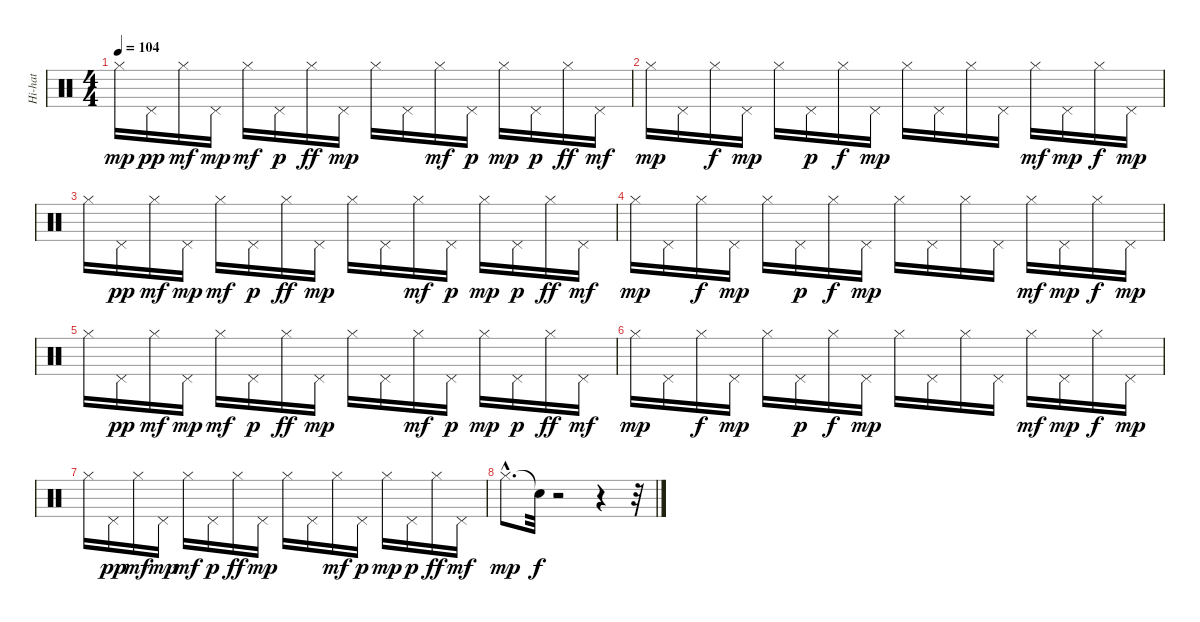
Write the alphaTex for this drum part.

\track ("Hi-hat" "Hi-hat") {instrument percussion}
\staff {score}
\articulation defaults
\ts (4 4)
\tempo 104
\clef neutral
\ks c "Hi-Hat (closed)".16{dy mp} "Pedal Hi-Hat (hit)".16{dy pp} "Hi-Hat (closed)".16{dy mf} "Pedal Hi-Hat (hit)".16{dy mp} "Hi-Hat (closed)".16{dy mf} "Pedal Hi-Hat (hit)".16{dy p} "Hi-Hat (closed)".16{dy ff} "Pedal Hi-Hat (hit)".16{dy mp} "Hi-Hat (closed)".16 "Pedal Hi-Hat (hit)".16 "Hi-Hat (closed)".16{dy mf} "Pedal Hi-Hat (hit)".16{dy p} "Hi-Hat (closed)".16{dy mp} "Pedal Hi-Hat (hit)".16{dy p} "Hi-Hat (closed)".16{dy ff} "Pedal Hi-Hat (hit)".16{dy mf}
|
"Hi-Hat (closed)".16{dy mp} "Pedal Hi-Hat (hit)".16 "Hi-Hat (closed)".16{dy f} "Pedal Hi-Hat (hit)".16{dy mp} "Hi-Hat (closed)".16 "Pedal Hi-Hat (hit)".16{dy p} "Hi-Hat (closed)".16{dy f} "Pedal Hi-Hat (hit)".16{dy mp} "Hi-Hat (closed)".16 "Pedal Hi-Hat (hit)".16 "Hi-Hat (closed)".16 "Pedal Hi-Hat (hit)".16 "Hi-Hat (closed)".16{dy mf} "Pedal Hi-Hat (hit)".16{dy mp} "Hi-Hat (closed)".16{dy f} "Pedal Hi-Hat (hit)".16{dy mp} |
"Hi-Hat (closed)".16 "Pedal Hi-Hat (hit)".16{dy pp} "Hi-Hat (closed)".16{dy mf} "Pedal Hi-Hat (hit)".16{dy mp} "Hi-Hat (closed)".16{dy mf} "Pedal Hi-Hat (hit)".16{dy p} "Hi-Hat (closed)".16{dy ff} "Pedal Hi-Hat (hit)".16{dy mp} "Hi-Hat (closed)".16 "Pedal Hi-Hat (hit)".16 "Hi-Hat (closed)".16{dy mf} "Pedal Hi-Hat (hit)".16{dy p} "Hi-Hat (closed)".16{dy mp} "Pedal Hi-Hat (hit)".16{dy p} "Hi-Hat (closed)".16{dy ff} "Pedal Hi-Hat (hit)".16{dy mf} |
"Hi-Hat (closed)".16{dy mp} "Pedal Hi-Hat (hit)".16 "Hi-Hat (closed)".16{dy f} "Pedal Hi-Hat (hit)".16{dy mp} "Hi-Hat (closed)".16 "Pedal Hi-Hat (hit)".16{dy p} "Hi-Hat (closed)".16{dy f} "Pedal Hi-Hat (hit)".16{dy mp} "Hi-Hat (closed)".16 "Pedal Hi-Hat (hit)".16 "Hi-Hat (closed)".16 "Pedal Hi-Hat (hit)".16 "Hi-Hat (closed)".16{dy mf} "Pedal Hi-Hat (hit)".16{dy mp} "Hi-Hat (closed)".16{dy f} "Pedal Hi-Hat (hit)".16{dy mp} |
"Hi-Hat (closed)".16 "Pedal Hi-Hat (hit)".16{dy pp} "Hi-Hat (closed)".16{dy mf} "Pedal Hi-Hat (hit)".16{dy mp} "Hi-Hat (closed)".16{dy mf} "Pedal Hi-Hat (hit)".16{dy p} "Hi-Hat (closed)".16{dy ff} "Pedal Hi-Hat (hit)".16{dy mp} "Hi-Hat (closed)".16 "Pedal Hi-Hat (hit)".16 "Hi-Hat (closed)".16{dy mf} "Pedal Hi-Hat (hit)".16{dy p} "Hi-Hat (closed)".16{dy mp} "Pedal Hi-Hat (hit)".16{dy p} "Hi-Hat (closed)".16{dy ff} "Pedal Hi-Hat (hit)".16{dy mf} |
"Hi-Hat (closed)".16{dy mp} "Pedal Hi-Hat (hit)".16 "Hi-Hat (closed)".16{dy f} "Pedal Hi-Hat (hit)".16{dy mp} "Hi-Hat (closed)".16 "Pedal Hi-Hat (hit)".16{dy p} "Hi-Hat (closed)".16{dy f} "Pedal Hi-Hat (hit)".16{dy mp} "Hi-Hat (closed)".16 "Pedal Hi-Hat (hit)".16 "Hi-Hat (closed)".16 "Pedal Hi-Hat (hit)".16 "Hi-Hat (closed)".16{dy mf} "Pedal Hi-Hat (hit)".16{dy mp} "Hi-Hat (closed)".16{dy f} "Pedal Hi-Hat (hit)".16{dy mp} |
"Hi-Hat (closed)".16 "Pedal Hi-Hat (hit)".16{dy pp} "Hi-Hat (closed)".16{dy mf} "Pedal Hi-Hat (hit)".16{dy mp} "Hi-Hat (closed)".16{dy mf} "Pedal Hi-Hat (hit)".16{dy p} "Hi-Hat (closed)".16{dy ff} "Pedal Hi-Hat (hit)".16{dy mp} "Hi-Hat (closed)".16 "Pedal Hi-Hat (hit)".16 "Hi-Hat (closed)".16{dy mf} "Pedal Hi-Hat (hit)".16{dy p} "Hi-Hat (closed)".16{dy mp} "Pedal Hi-Hat (hit)".16{dy p} "Hi-Hat (closed)".16{dy ff} "Pedal Hi-Hat (hit)".16{dy mf} |
"Hi-Hat (closed)"{hac}.8{d dy mp} "Snare (hit)"{t}.32{dy f} r.2 r.4 r.32
